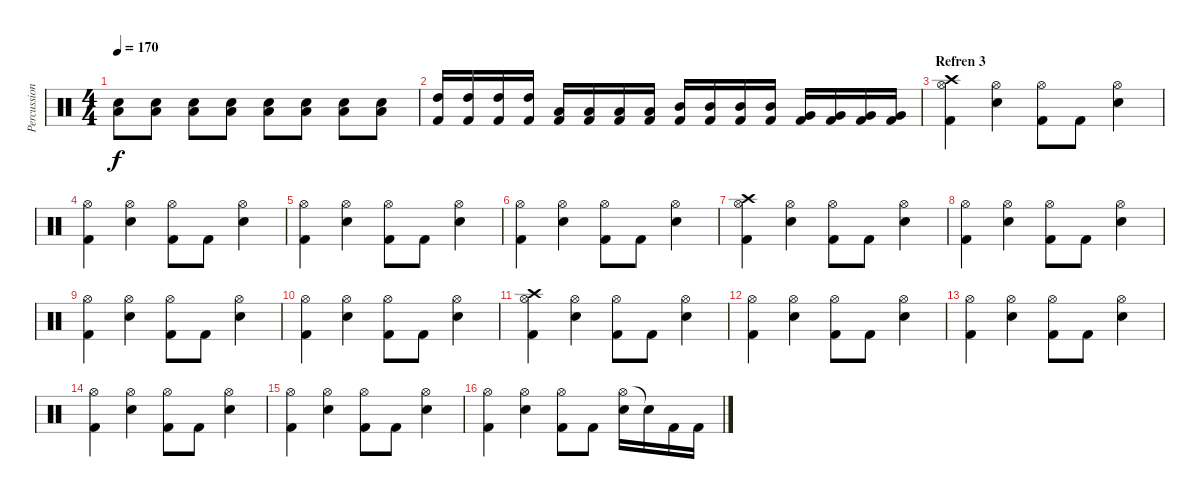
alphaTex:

\track ("Percussion - Who the fuck knows" "Percussion") {instrument percussion}
\staff {score}
\articulation defaults
\ts (4 4)
\tempo 170
\clef neutral
\ks c
("Low Tom (hit)" "Snare (hit) 2").8{dy f} ("Low Tom (hit)" "Snare (hit) 2").8 ("Low Tom (hit)" "Snare (hit) 2").8 ("Low Tom (hit)" "Snare (hit) 2").8 ("Low Tom (hit)" "Snare (hit) 2").8 ("Low Tom (hit)" "Snare (hit) 2").8 ("Low Tom (hit)" "Snare (hit) 2").8 ("Low Tom (hit)" "Snare (hit) 2").8 |
("High Tom (hit)" "Kick (hit) 2").16 ("High Tom (hit)" "Kick (hit) 2").16 ("High Tom (hit)" "Kick (hit) 2").16 ("High Tom (hit)" "Kick (hit) 2").16 ("Low Tom (hit)" "Kick (hit) 2").16 ("Low Tom (hit)" "Kick (hit) 2").16 ("Low Tom (hit)" "Kick (hit) 2").16 ("Low Tom (hit)" "Kick (hit) 2").16 ("Mid Tom (hit)" "Kick (hit) 2").16 ("Mid Tom (hit)" "Kick (hit) 2").16 ("Mid Tom (hit)" "Kick (hit) 2").16 ("Mid Tom (hit)" "Kick (hit) 2").16 ("Very Low Tom (hit)" "Kick (hit) 2").16 ("Very Low Tom (hit)" "Kick (hit) 2").16 ("Very Low Tom (hit)" "Kick (hit) 2").16 ("Very Low Tom (hit)" "Kick (hit) 2").16 |
\section ("" "Refren 3")
("Crash high (hit)" "Kick (hit) 2" "Hi-Hat (open)").4 ("Hi-Hat (open)" "Snare (hit) 2").4 ("Hi-Hat (open)" "Kick (hit) 2").8 "Kick (hit) 2".8 ("Hi-Hat (open)" "Snare (hit) 2").4 |
("Hi-Hat (open)" "Kick (hit) 2").4 ("Hi-Hat (open)" "Snare (hit) 2").4 ("Hi-Hat (open)" "Kick (hit) 2").8 "Kick (hit) 2".8 ("Hi-Hat (open)" "Snare (hit) 2").4 |
("Hi-Hat (open)" "Kick (hit) 2").4 ("Hi-Hat (open)" "Snare (hit) 2").4 ("Hi-Hat (open)" "Kick (hit) 2").8 "Kick (hit) 2".8 ("Hi-Hat (open)" "Snare (hit) 2").4 |
("Hi-Hat (open)" "Kick (hit) 2").4 ("Hi-Hat (open)" "Snare (hit) 2").4 ("Hi-Hat (open)" "Kick (hit) 2").8 "Kick (hit) 2".8 ("Hi-Hat (open)" "Snare (hit) 2").4 |
("Crash high (hit)" "Kick (hit) 2" "Hi-Hat (open)").4 ("Hi-Hat (open)" "Snare (hit) 2").4 ("Hi-Hat (open)" "Kick (hit) 2").8 "Kick (hit) 2".8 ("Hi-Hat (open)" "Snare (hit) 2").4 |
("Hi-Hat (open)" "Kick (hit) 2").4 ("Hi-Hat (open)" "Snare (hit) 2").4 ("Hi-Hat (open)" "Kick (hit) 2").8 "Kick (hit) 2".8 ("Hi-Hat (open)" "Snare (hit) 2").4 |
("Hi-Hat (open)" "Kick (hit) 2").4 ("Hi-Hat (open)" "Snare (hit) 2").4 ("Hi-Hat (open)" "Kick (hit) 2").8 "Kick (hit) 2".8 ("Hi-Hat (open)" "Snare (hit) 2").4 |
("Hi-Hat (open)" "Kick (hit) 2").4 ("Hi-Hat (open)" "Snare (hit) 2").4 ("Hi-Hat (open)" "Kick (hit) 2").8 "Kick (hit) 2".8 ("Hi-Hat (open)" "Snare (hit) 2").4 |
("Crash high (hit)" "Kick (hit) 2" "Hi-Hat (open)").4 ("Hi-Hat (open)" "Snare (hit) 2").4 ("Hi-Hat (open)" "Kick (hit) 2").8 "Kick (hit) 2".8 ("Hi-Hat (open)" "Snare (hit) 2").4 |
("Hi-Hat (open)" "Kick (hit) 2").4 ("Hi-Hat (open)" "Snare (hit) 2").4 ("Hi-Hat (open)" "Kick (hit) 2").8 "Kick (hit) 2".8 ("Hi-Hat (open)" "Snare (hit) 2").4 |
("Hi-Hat (open)" "Kick (hit) 2").4 ("Hi-Hat (open)" "Snare (hit) 2").4 ("Hi-Hat (open)" "Kick (hit) 2").8 "Kick (hit) 2".8 ("Hi-Hat (open)" "Snare (hit) 2").4 |
("Hi-Hat (open)" "Kick (hit) 2").4 ("Hi-Hat (open)" "Snare (hit) 2").4 ("Hi-Hat (open)" "Kick (hit) 2").8 "Kick (hit) 2".8 ("Hi-Hat (open)" "Snare (hit) 2").4 |
("Hi-Hat (open)" "Kick (hit) 2").4 ("Hi-Hat (open)" "Snare (hit) 2").4 ("Hi-Hat (open)" "Kick (hit) 2").8 "Kick (hit) 2".8 ("Hi-Hat (open)" "Snare (hit) 2").4 |
("Hi-Hat (open)" "Kick (hit) 2").4 ("Hi-Hat (open)" "Snare (hit) 2").4 ("Hi-Hat (open)" "Kick (hit) 2").8 "Kick (hit) 2".8 ("Hi-Hat (open)" "Snare (hit) 2").16 "Snare (hit) 2"{t}.16 "Kick (hit) 2".16 "Kick (hit) 2".16
